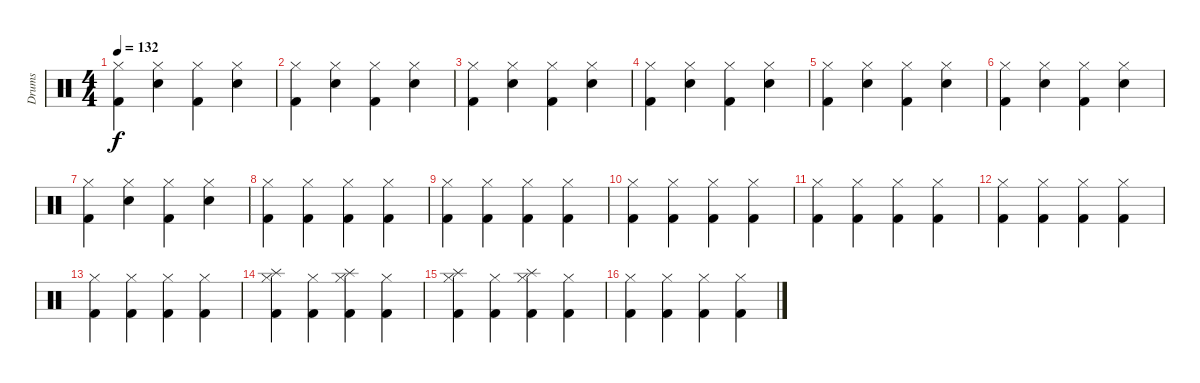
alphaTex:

\track ("Drums" "Drums") {instrument percussion}
\staff {score}
\articulation defaults
\ts (4 4)
\tempo 132
\clef neutral
\ks c
("Hi-Hat (closed)" "Kick (hit) 2").4{dy f} ("Hi-Hat (closed)" "Snare (hit) 2").4 ("Hi-Hat (closed)" "Kick (hit) 2").4 ("Hi-Hat (closed)" "Snare (hit) 2").4 |
("Hi-Hat (closed)" "Kick (hit) 2").4 ("Hi-Hat (closed)" "Snare (hit) 2").4 ("Hi-Hat (closed)" "Kick (hit) 2").4 ("Hi-Hat (closed)" "Snare (hit) 2").4 |
("Hi-Hat (closed)" "Kick (hit) 2").4 ("Hi-Hat (closed)" "Snare (hit) 2").4 ("Hi-Hat (closed)" "Kick (hit) 2").4 ("Hi-Hat (closed)" "Snare (hit) 2").4 |
("Hi-Hat (closed)" "Kick (hit) 2").4 ("Hi-Hat (closed)" "Snare (hit) 2").4 ("Hi-Hat (closed)" "Kick (hit) 2").4 ("Hi-Hat (closed)" "Snare (hit) 2").4 |
("Hi-Hat (closed)" "Kick (hit) 2").4 ("Hi-Hat (closed)" "Snare (hit) 2").4 ("Hi-Hat (closed)" "Kick (hit) 2").4 ("Hi-Hat (closed)" "Snare (hit) 2").4 |
("Hi-Hat (closed)" "Kick (hit) 2").4 ("Hi-Hat (closed)" "Snare (hit) 2").4 ("Hi-Hat (closed)" "Kick (hit) 2").4 ("Hi-Hat (closed)" "Snare (hit) 2").4 |
("Hi-Hat (closed)" "Kick (hit) 2").4 ("Hi-Hat (closed)" "Snare (hit) 2").4 ("Hi-Hat (closed)" "Kick (hit) 2").4 ("Hi-Hat (closed)" "Snare (hit) 2").4 |
("Hi-Hat (closed)" "Kick (hit) 2").4 ("Hi-Hat (closed)" "Kick (hit) 2").4 ("Hi-Hat (closed)" "Kick (hit) 2").4 ("Hi-Hat (closed)" "Kick (hit) 2").4 |
("Kick (hit) 2" "Hi-Hat (closed)").4 ("Kick (hit) 2" "Hi-Hat (closed)").4 ("Kick (hit) 2" "Hi-Hat (closed)").4 ("Kick (hit) 2" "Hi-Hat (closed)").4 |
("Hi-Hat (closed)" "Kick (hit) 2").4 ("Hi-Hat (closed)" "Kick (hit) 2").4 ("Hi-Hat (closed)" "Kick (hit) 2").4 ("Hi-Hat (closed)" "Kick (hit) 2").4 |
("Kick (hit) 2" "Hi-Hat (closed)").4 ("Kick (hit) 2" "Hi-Hat (closed)").4 ("Kick (hit) 2" "Hi-Hat (closed)").4 ("Kick (hit) 2" "Hi-Hat (closed)").4 |
("Kick (hit) 2" "Hi-Hat (closed)").4 ("Kick (hit) 2" "Hi-Hat (closed)").4 ("Kick (hit) 2" "Hi-Hat (closed)").4 ("Kick (hit) 2" "Hi-Hat (closed)").4 |
("Hi-Hat (closed)" "Kick (hit) 2").4 ("Hi-Hat (closed)" "Kick (hit) 2").4 ("Hi-Hat (closed)" "Kick (hit) 2").4 ("Hi-Hat (closed)" "Kick (hit) 2").4 |
("Splash (hit)" "Kick (hit) 2" "Hi-Hat (closed)").4 ("Kick (hit) 2" "Hi-Hat (closed)").4 ("Splash (hit)" "Kick (hit) 2" "Hi-Hat (closed)").4 ("Kick (hit) 2" "Hi-Hat (closed)").4 |
("Splash (hit)" "Kick (hit) 2" "Hi-Hat (closed)").4 ("Kick (hit) 2" "Hi-Hat (closed)").4 ("Splash (hit)" "Kick (hit) 2" "Hi-Hat (closed)").4 ("Kick (hit) 2" "Hi-Hat (closed)").4 |
("Hi-Hat (closed)" "Kick (hit) 2").4 ("Hi-Hat (closed)" "Kick (hit) 2").4 ("Hi-Hat (closed)" "Kick (hit) 2").4 ("Hi-Hat (closed)" "Kick (hit) 2").4
